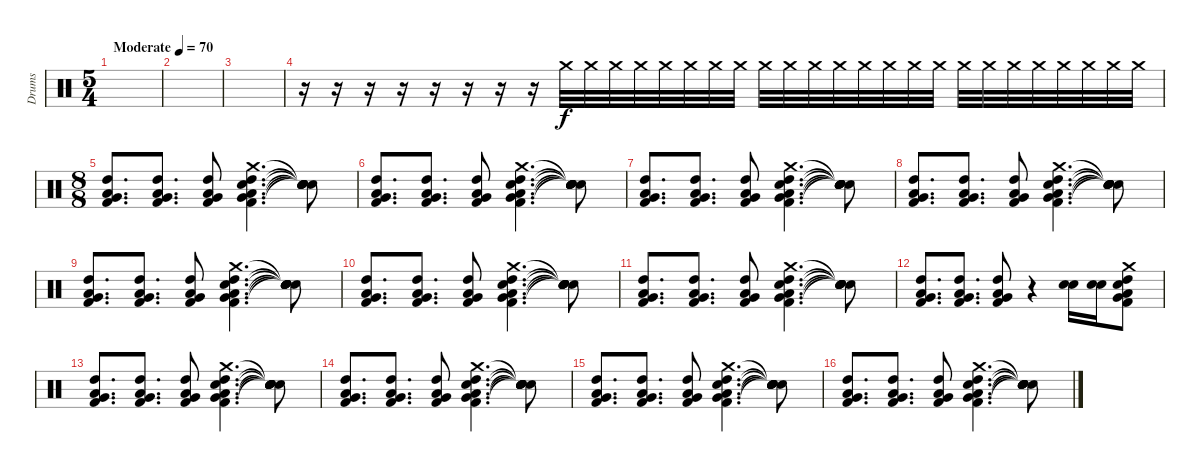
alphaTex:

\track ("Drums" "Drums") {instrument percussion}
\staff {score}
\articulation defaults
\ts (5 4)
\tempo (70 "Moderate")
\clef neutral
\ks c
|
|
|
r.16 r.16 r.16 r.16 r.16 r.16 r.16 r.16 "Crash medium (hit)".32{volume 13} "Crash medium (hit)".32 "Crash medium (hit)".32 "Crash medium (hit)".32 "Crash medium (hit)".32 "Crash medium (hit)".32 "Crash medium (hit)".32 "Crash medium (hit)".32 "Crash medium (hit)".32 "Crash medium (hit)".32 "Crash medium (hit)".32 "Crash medium (hit)".32 "Crash medium (hit)".32 "Crash medium (hit)".32 "Crash medium (hit)".32 "Crash medium (hit)".32 "Crash medium (hit)".32 "Crash medium (hit)".32 "Crash medium (hit)".32 "Crash medium (hit)".32 "Crash medium (hit)".32 "Crash medium (hit)".32 "Crash medium (hit)".32 "Crash medium (hit)".32 |
\ts (8 8)
("High Tom (hit)" "Low Tom (hit)" "Very Low Tom (hit)" "Kick (hit) 2").8{d} ("High Tom (hit)" "Low Tom (hit)" "Very Low Tom (hit)" "Kick (hit) 2").8{d} ("High Tom (hit)" "Low Tom (hit)" "Very Low Tom (hit)" "Kick (hit) 2").8 ("Crash medium (hit)" "Snare (hit) 2" "High Tom (hit)" "Low Tom (hit)" "Very Low Tom (hit)" "Kick (hit) 2").4{d} ("Snare (hit)"{t} "Snare (hit)"{t} "Snare (hit)"{t} "Snare (hit)"{t} "Snare (hit)"{t} "Snare (hit)"{t}).8 |
("High Tom (hit)" "Low Tom (hit)" "Very Low Tom (hit)" "Kick (hit) 2").8{d} ("High Tom (hit)" "Low Tom (hit)" "Very Low Tom (hit)" "Kick (hit) 2").8{d} ("High Tom (hit)" "Low Tom (hit)" "Very Low Tom (hit)" "Kick (hit) 2").8 ("Crash medium (hit)" "Snare (hit) 2" "High Tom (hit)" "Low Tom (hit)" "Very Low Tom (hit)" "Kick (hit) 2").4{d} ("Snare (hit)"{t} "Snare (hit)"{t} "Snare (hit)"{t} "Snare (hit)"{t} "Snare (hit)"{t} "Snare (hit)"{t}).8 |
("High Tom (hit)" "Low Tom (hit)" "Very Low Tom (hit)" "Kick (hit) 2").8{d} ("High Tom (hit)" "Low Tom (hit)" "Very Low Tom (hit)" "Kick (hit) 2").8{d} ("High Tom (hit)" "Low Tom (hit)" "Very Low Tom (hit)" "Kick (hit) 2").8 ("Crash medium (hit)" "Snare (hit) 2" "High Tom (hit)" "Low Tom (hit)" "Very Low Tom (hit)" "Kick (hit) 2").4{d} ("Snare (hit)"{t} "Snare (hit)"{t} "Snare (hit)"{t} "Snare (hit)"{t} "Snare (hit)"{t} "Snare (hit)"{t}).8 |
("High Tom (hit)" "Low Tom (hit)" "Very Low Tom (hit)" "Kick (hit) 2").8{d} ("High Tom (hit)" "Low Tom (hit)" "Very Low Tom (hit)" "Kick (hit) 2").8{d} ("High Tom (hit)" "Low Tom (hit)" "Very Low Tom (hit)" "Kick (hit) 2").8 ("Crash medium (hit)" "Snare (hit) 2" "High Tom (hit)" "Low Tom (hit)" "Very Low Tom (hit)" "Kick (hit) 2").4{d} ("Snare (hit)"{t} "Snare (hit)"{t} "Snare (hit)"{t} "Snare (hit)"{t} "Snare (hit)"{t} "Snare (hit)"{t}).8 |
("High Tom (hit)" "Low Tom (hit)" "Very Low Tom (hit)" "Kick (hit) 2").8{d} ("High Tom (hit)" "Low Tom (hit)" "Very Low Tom (hit)" "Kick (hit) 2").8{d} ("High Tom (hit)" "Low Tom (hit)" "Very Low Tom (hit)" "Kick (hit) 2").8 ("Crash medium (hit)" "Snare (hit) 2" "High Tom (hit)" "Low Tom (hit)" "Very Low Tom (hit)" "Kick (hit) 2").4{d} ("Snare (hit)"{t} "Snare (hit)"{t} "Snare (hit)"{t} "Snare (hit)"{t} "Snare (hit)"{t} "Snare (hit)"{t}).8 |
("High Tom (hit)" "Low Tom (hit)" "Very Low Tom (hit)" "Kick (hit) 2").8{d} ("High Tom (hit)" "Low Tom (hit)" "Very Low Tom (hit)" "Kick (hit) 2").8{d} ("High Tom (hit)" "Low Tom (hit)" "Very Low Tom (hit)" "Kick (hit) 2").8 ("Crash medium (hit)" "Snare (hit) 2" "High Tom (hit)" "Low Tom (hit)" "Very Low Tom (hit)" "Kick (hit) 2").4{d} ("Snare (hit)"{t} "Snare (hit)"{t} "Snare (hit)"{t} "Snare (hit)"{t} "Snare (hit)"{t} "Snare (hit)"{t}).8 |
("High Tom (hit)" "Low Tom (hit)" "Very Low Tom (hit)" "Kick (hit) 2").8{d} ("High Tom (hit)" "Low Tom (hit)" "Very Low Tom (hit)" "Kick (hit) 2").8{d} ("High Tom (hit)" "Low Tom (hit)" "Very Low Tom (hit)" "Kick (hit) 2").8 ("Crash medium (hit)" "Snare (hit) 2" "High Tom (hit)" "Low Tom (hit)" "Very Low Tom (hit)" "Kick (hit) 2").4{d} ("Snare (hit)"{t} "Snare (hit)"{t} "Snare (hit)"{t} "Snare (hit)"{t} "Snare (hit)"{t} "Snare (hit)"{t}).8 |
("High Tom (hit)" "Low Tom (hit)" "Very Low Tom (hit)" "Kick (hit) 2").8{d} ("High Tom (hit)" "Low Tom (hit)" "Very Low Tom (hit)" "Kick (hit) 2").8{d} ("High Tom (hit)" "Low Tom (hit)" "Very Low Tom (hit)" "Kick (hit) 2").8 r.4 ("Electric Snare (hit)" "Snare (hit) 2").16 ("Electric Snare (hit)" "Snare (hit) 2").16 ("Crash medium (hit)" "Snare (hit) 2" "High Tom (hit)" "Low Tom (hit)" "Very Low Tom (hit)" "Kick (hit) 2").8 |
("High Tom (hit)" "Low Tom (hit)" "Very Low Tom (hit)" "Kick (hit) 2").8{d} ("High Tom (hit)" "Low Tom (hit)" "Very Low Tom (hit)" "Kick (hit) 2").8{d} ("High Tom (hit)" "Low Tom (hit)" "Very Low Tom (hit)" "Kick (hit) 2").8 ("Crash medium (hit)" "Snare (hit) 2" "High Tom (hit)" "Low Tom (hit)" "Very Low Tom (hit)" "Kick (hit) 2").4{d} ("Snare (hit)"{t} "Snare (hit)"{t} "Snare (hit)"{t} "Snare (hit)"{t} "Snare (hit)"{t} "Snare (hit)"{t}).8 |
("High Tom (hit)" "Low Tom (hit)" "Very Low Tom (hit)" "Kick (hit) 2").8{d} ("High Tom (hit)" "Low Tom (hit)" "Very Low Tom (hit)" "Kick (hit) 2").8{d} ("High Tom (hit)" "Low Tom (hit)" "Very Low Tom (hit)" "Kick (hit) 2").8 ("Crash medium (hit)" "Snare (hit) 2" "High Tom (hit)" "Low Tom (hit)" "Very Low Tom (hit)" "Kick (hit) 2").4{d} ("Snare (hit)"{t} "Snare (hit)"{t} "Snare (hit)"{t} "Snare (hit)"{t} "Snare (hit)"{t} "Snare (hit)"{t}).8 |
("High Tom (hit)" "Low Tom (hit)" "Very Low Tom (hit)" "Kick (hit) 2").8{d} ("High Tom (hit)" "Low Tom (hit)" "Very Low Tom (hit)" "Kick (hit) 2").8{d} ("High Tom (hit)" "Low Tom (hit)" "Very Low Tom (hit)" "Kick (hit) 2").8 ("Crash medium (hit)" "Snare (hit) 2" "High Tom (hit)" "Low Tom (hit)" "Very Low Tom (hit)" "Kick (hit) 2").4{d} ("Snare (hit)"{t} "Snare (hit)"{t} "Snare (hit)"{t} "Snare (hit)"{t} "Snare (hit)"{t} "Snare (hit)"{t}).8 |
("High Tom (hit)" "Low Tom (hit)" "Very Low Tom (hit)" "Kick (hit) 2").8{d} ("High Tom (hit)" "Low Tom (hit)" "Very Low Tom (hit)" "Kick (hit) 2").8{d} ("High Tom (hit)" "Low Tom (hit)" "Very Low Tom (hit)" "Kick (hit) 2").8 ("Crash medium (hit)" "Snare (hit) 2" "High Tom (hit)" "Low Tom (hit)" "Very Low Tom (hit)" "Kick (hit) 2").4{d} ("Snare (hit)"{t} "Snare (hit)"{t} "Snare (hit)"{t} "Snare (hit)"{t} "Snare (hit)"{t} "Snare (hit)"{t}).8
